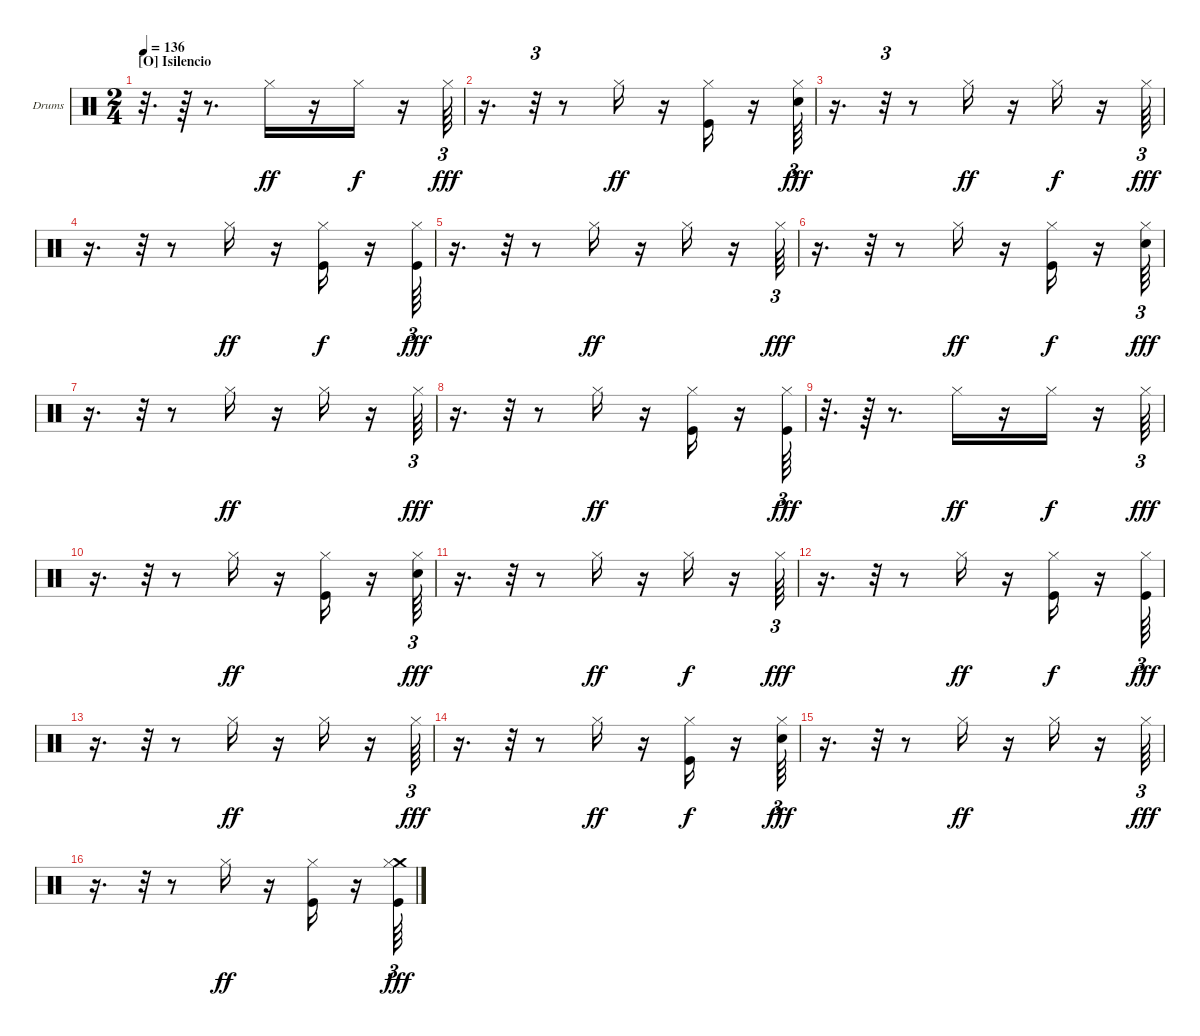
\bracketExtendMode groupsimilarinstruments
\firstSystemTrackNameOrientation horizontal
\otherSystemsTrackNameOrientation horizontal
\track ("Drumkit" "Drums") {solo instrument percussion}
\staff {score}
\articulation defaults
\ts (2 4)
\section ("O" "Isilencio")
\tempo 136
\clef neutral
\ks c
r.32{d dy fff} r.64 r.8{d} "Hi-Hat (closed)".16{dy ff} r.16 "Hi-Hat (closed)".16{dy f} r.16 "Hi-Hat (closed)".64{tu (3 2) dy fff} |
r.16{d} r.32{tu (3 2)} r.8 "Hi-Hat (closed)".16{dy ff} r.16 ("Hi-Hat (closed)" "Kick (hit)").16 r.16 ("Hi-Hat (closed)" "Snare (hit) 2").64{tu (3 2) dy fff} |
r.16{d} r.32{tu (3 2)} r.8 "Hi-Hat (closed)".16{dy ff} r.16 "Hi-Hat (closed)".16{dy f} r.16 "Hi-Hat (closed)".64{tu (3 2) dy fff} |
r.16{d} r.32{tu (3 2)} r.8 "Hi-Hat (closed)".16{dy ff} r.16 ("Hi-Hat (closed)" "Kick (hit)").16{dy f} r.16 ("Hi-Hat (closed)" "Kick (hit)").64{tu (3 2) dy fff} |
r.16{d} r.32{tu (3 2)} r.8 "Hi-Hat (closed)".16{dy ff} r.16 "Hi-Hat (closed)".16 r.16 "Hi-Hat (closed)".64{tu (3 2) dy fff} |
r.16{d} r.32{tu (3 2)} r.8 "Hi-Hat (closed)".16{dy ff} r.16 ("Hi-Hat (closed)" "Kick (hit)").16{dy f} r.16 ("Hi-Hat (closed)" "Snare (hit) 2").64{tu (3 2) dy fff} |
r.16{d} r.32{tu (3 2)} r.8 "Hi-Hat (closed)".16{dy ff} r.16 "Hi-Hat (closed)".16 r.16 "Hi-Hat (closed)".64{tu (3 2) dy fff} |
r.16{d} r.32{tu (3 2)} r.8 "Hi-Hat (closed)".16{dy ff} r.16 ("Hi-Hat (closed)" "Kick (hit)").16 r.16 ("Hi-Hat (closed)" "Kick (hit)").64{tu (3 2) dy fff} |
r.32{d} r.64 r.8{d} "Hi-Hat (closed)".16{dy ff} r.16 "Hi-Hat (closed)".16{dy f} r.16 "Hi-Hat (closed)".64{tu (3 2) dy fff} |
r.16{d} r.32{tu (3 2)} r.8 "Hi-Hat (closed)".16{dy ff} r.16 ("Hi-Hat (closed)" "Kick (hit)").16 r.16 ("Hi-Hat (closed)" "Snare (hit) 2").64{tu (3 2) dy fff} |
r.16{d} r.32{tu (3 2)} r.8 "Hi-Hat (closed)".16{dy ff} r.16 "Hi-Hat (closed)".16{dy f} r.16 "Hi-Hat (closed)".64{tu (3 2) dy fff} |
r.16{d} r.32{tu (3 2)} r.8 "Hi-Hat (closed)".16{dy ff} r.16 ("Hi-Hat (closed)" "Kick (hit)").16{dy f} r.16 ("Hi-Hat (closed)" "Kick (hit)").64{tu (3 2) dy fff} |
r.16{d} r.32{tu (3 2)} r.8 "Hi-Hat (closed)".16{dy ff} r.16 "Hi-Hat (closed)".16 r.16 "Hi-Hat (closed)".64{tu (3 2) dy fff} |
r.16{d} r.32{tu (3 2)} r.8 "Hi-Hat (closed)".16{dy ff} r.16 ("Hi-Hat (closed)" "Kick (hit)").16{dy f} r.16 ("Hi-Hat (closed)" "Snare (hit) 2").64{tu (3 2) dy fff} |
r.16{d} r.32{tu (3 2)} r.8 "Hi-Hat (closed)".16{dy ff} r.16 "Hi-Hat (closed)".16 r.16 "Hi-Hat (closed)".64{tu (3 2) dy fff} |
r.16{d} r.32{tu (3 2)} r.8 "Hi-Hat (closed)".16{dy ff} r.16 ("Hi-Hat (closed)" "Kick (hit)").16 r.16 ("Crash medium (hit)" "Hi-Hat (closed)" "Kick (hit)").64{tu (3 2) dy fff}
